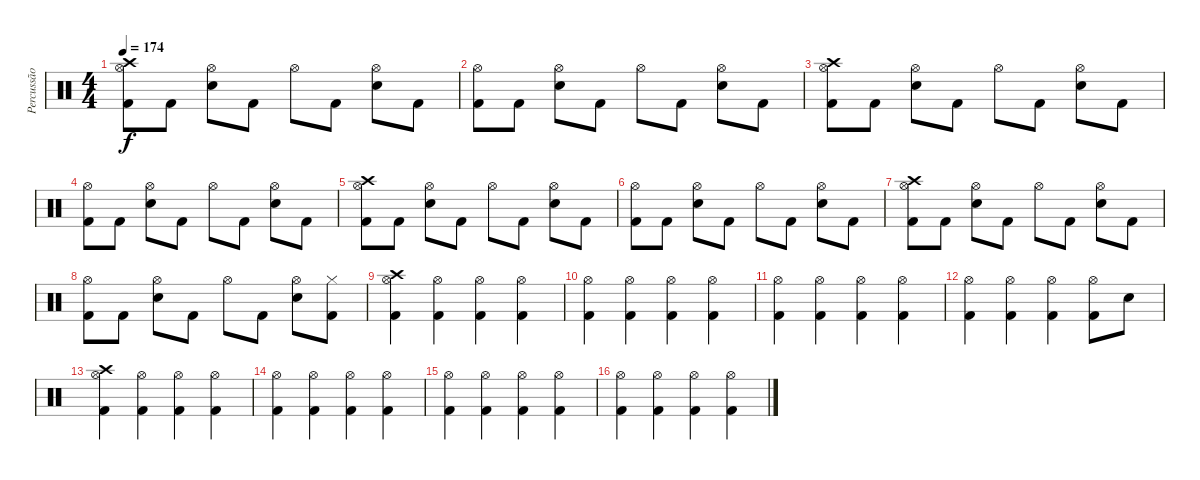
\track ("Percussão" "Percussão") {instrument percussion}
\staff {score}
\articulation defaults
\ts (4 4)
\tempo 174
\clef neutral
\ks c
("Crash high (hit)" "Hi-Hat (open)" "Kick (hit) 2").8{dy f} "Kick (hit) 2".8 ("Hi-Hat (open)" "Electric Snare (hit)").8 "Kick (hit) 2".8 "Hi-Hat (open)".8 "Kick (hit) 2".8 ("Hi-Hat (open)" "Electric Snare (hit)").8 "Kick (hit) 2".8 |
("Hi-Hat (open)" "Kick (hit) 2").8 "Kick (hit) 2".8 ("Hi-Hat (open)" "Electric Snare (hit)").8 "Kick (hit) 2".8 "Hi-Hat (open)".8 "Kick (hit) 2".8 ("Hi-Hat (open)" "Electric Snare (hit)").8 "Kick (hit) 2".8 |
("Crash high (hit)" "Hi-Hat (open)" "Kick (hit) 2").8 "Kick (hit) 2".8 ("Hi-Hat (open)" "Electric Snare (hit)").8 "Kick (hit) 2".8 "Hi-Hat (open)".8 "Kick (hit) 2".8 ("Hi-Hat (open)" "Electric Snare (hit)").8 "Kick (hit) 2".8 |
("Hi-Hat (open)" "Kick (hit) 2").8 "Kick (hit) 2".8 ("Hi-Hat (open)" "Electric Snare (hit)").8 "Kick (hit) 2".8 "Hi-Hat (open)".8 "Kick (hit) 2".8 ("Hi-Hat (open)" "Electric Snare (hit)").8 "Kick (hit) 2".8 |
("Crash high (hit)" "Hi-Hat (open)" "Kick (hit) 2").8 "Kick (hit) 2".8 ("Hi-Hat (open)" "Electric Snare (hit)").8 "Kick (hit) 2".8 "Hi-Hat (open)".8 "Kick (hit) 2".8 ("Hi-Hat (open)" "Electric Snare (hit)").8 "Kick (hit) 2".8 |
("Hi-Hat (open)" "Kick (hit) 2").8 "Kick (hit) 2".8 ("Hi-Hat (open)" "Electric Snare (hit)").8 "Kick (hit) 2".8 "Hi-Hat (open)".8 "Kick (hit) 2".8 ("Hi-Hat (open)" "Electric Snare (hit)").8 "Kick (hit) 2".8 |
("Crash high (hit)" "Hi-Hat (open)" "Kick (hit) 2").8 "Kick (hit) 2".8 ("Hi-Hat (open)" "Electric Snare (hit)").8 "Kick (hit) 2".8 "Hi-Hat (open)".8 "Kick (hit) 2".8 ("Hi-Hat (open)" "Electric Snare (hit)").8 "Kick (hit) 2".8 |
("Hi-Hat (open)" "Kick (hit) 2").8 "Kick (hit) 2".8 ("Hi-Hat (open)" "Electric Snare (hit)").8 "Kick (hit) 2".8 "Hi-Hat (open)".8 "Kick (hit) 2".8 ("Hi-Hat (open)" "Electric Snare (hit)").8 ("Hi-Hat (closed)" "Kick (hit) 2").8 |
("Crash high (hit)" "Hi-Hat (open)" "Kick (hit) 2").4 ("Hi-Hat (open)" "Kick (hit) 2").4 ("Hi-Hat (open)" "Kick (hit) 2").4 ("Hi-Hat (open)" "Kick (hit) 2").4 |
("Hi-Hat (open)" "Kick (hit) 2").4 ("Hi-Hat (open)" "Kick (hit) 2").4 ("Hi-Hat (open)" "Kick (hit) 2").4 ("Hi-Hat (open)" "Kick (hit) 2").4 |
("Hi-Hat (open)" "Kick (hit) 2").4 ("Hi-Hat (open)" "Kick (hit) 2").4 ("Hi-Hat (open)" "Kick (hit) 2").4 ("Hi-Hat (open)" "Kick (hit) 2").4 |
("Hi-Hat (open)" "Kick (hit) 2").4 ("Hi-Hat (open)" "Kick (hit) 2").4 ("Hi-Hat (open)" "Kick (hit) 2").4 ("Hi-Hat (open)" "Kick (hit) 2").8 "Electric Snare (hit)".8 |
("Crash high (hit)" "Hi-Hat (open)" "Kick (hit) 2").4 ("Hi-Hat (open)" "Kick (hit) 2").4 ("Hi-Hat (open)" "Kick (hit) 2").4 ("Hi-Hat (open)" "Kick (hit) 2").4 |
("Hi-Hat (open)" "Kick (hit) 2").4 ("Hi-Hat (open)" "Kick (hit) 2").4 ("Hi-Hat (open)" "Kick (hit) 2").4 ("Hi-Hat (open)" "Kick (hit) 2").4 |
("Hi-Hat (open)" "Kick (hit) 2").4 ("Hi-Hat (open)" "Kick (hit) 2").4 ("Hi-Hat (open)" "Kick (hit) 2").4 ("Hi-Hat (open)" "Kick (hit) 2").4 |
("Hi-Hat (open)" "Kick (hit) 2").4 ("Hi-Hat (open)" "Kick (hit) 2").4 ("Hi-Hat (open)" "Kick (hit) 2").4 ("Hi-Hat (open)" "Kick (hit) 2").4
